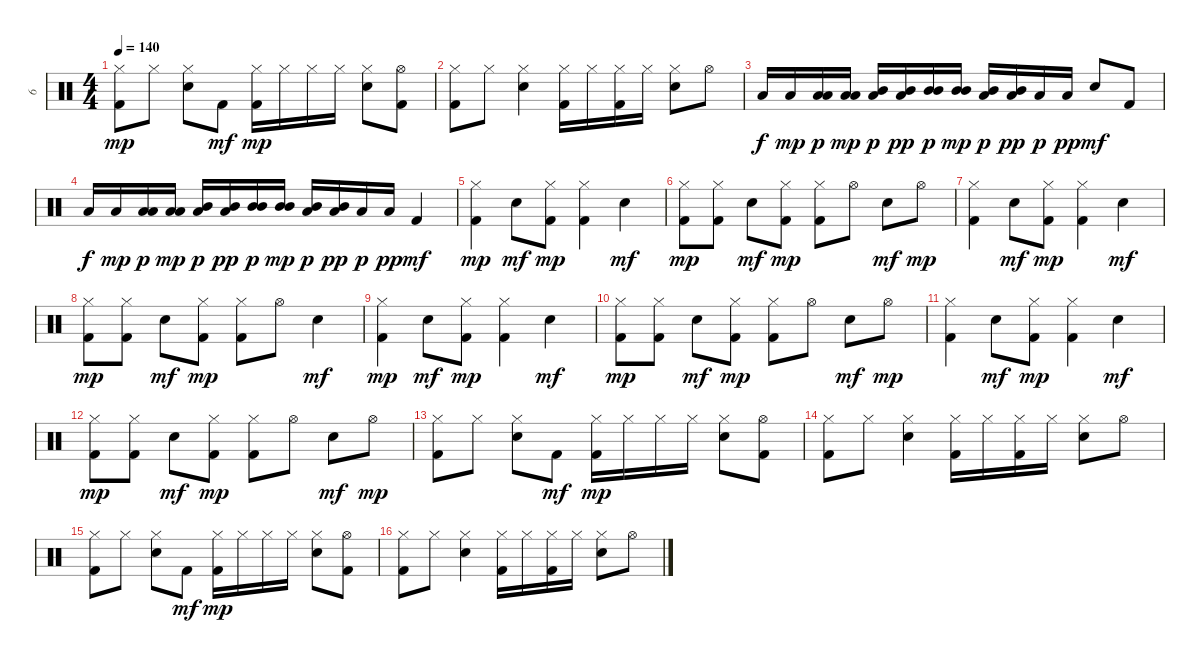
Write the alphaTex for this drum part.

\track ("6" "6") {instrument percussion}
\staff {score}
\articulation defaults
\ts (4 4)
\tempo 140
\clef neutral
\ks c
("Kick (hit) 2" "Hi-Hat (closed)").8{dy mp} "Hi-Hat (closed)".8 ("Electric Snare (hit)" "Hi-Hat (closed)").8 "Kick (hit) 2".8{dy mf} ("Kick (hit) 2" "Hi-Hat (closed)").16{dy mp} "Hi-Hat (closed)".16 "Hi-Hat (closed)".16 "Hi-Hat (closed)".16 ("Electric Snare (hit)" "Hi-Hat (closed)").8 ("Kick (hit) 2" "Hi-Hat (open)").8 |
("Kick (hit) 2" "Hi-Hat (closed)").8 "Hi-Hat (closed)".8 ("Electric Snare (hit)" "Hi-Hat (closed)").4 ("Kick (hit) 2" "Hi-Hat (closed)").16 "Hi-Hat (closed)".16 ("Kick (hit) 2" "Hi-Hat (closed)").16 "Hi-Hat (closed)".16 ("Electric Snare (hit)" "Hi-Hat (closed)").8 "Hi-Hat (open)".8 |
"Low Tom (hit)".16{dy f} "Low Tom (hit)".16{dy mp} ("Low Tom (hit)" "Low Tom (hit)").16{dy p} ("Low Tom (hit)" "Low Tom (hit)").16{dy mp} ("Mid Tom (hit)" "Low Tom (hit)").16{dy p} ("Mid Tom (hit)" "Low Tom (hit)").16{dy pp} ("Mid Tom (hit)" "Mid Tom (hit)").16{dy p} ("Mid Tom (hit)" "Mid Tom (hit)").16{dy mp} ("Low Tom (hit)" "Mid Tom (hit)").16{dy p} ("Low Tom (hit)" "Mid Tom (hit)").16{dy pp} "Low Tom (hit)".16{dy p} "Low Tom (hit)".16{dy pp} "Electric Snare (hit)".8{dy mf} "Kick (hit) 2".8 |
"Low Tom (hit)".16{dy f} "Low Tom (hit)".16{dy mp} ("Low Tom (hit)" "Low Tom (hit)").16{dy p} ("Low Tom (hit)" "Low Tom (hit)").16{dy mp} ("Mid Tom (hit)" "Low Tom (hit)").16{dy p} ("Mid Tom (hit)" "Low Tom (hit)").16{dy pp} ("Mid Tom (hit)" "Mid Tom (hit)").16{dy p} ("Mid Tom (hit)" "Mid Tom (hit)").16{dy mp} ("Low Tom (hit)" "Mid Tom (hit)").16{dy p} ("Low Tom (hit)" "Mid Tom (hit)").16{dy pp} "Low Tom (hit)".16{dy p} "Low Tom (hit)".16{dy pp} "Kick (hit) 2".4{dy mf} |
("Kick (hit) 2" "Hi-Hat (closed)").4{dy mp} "Electric Snare (hit)".8{dy mf} ("Kick (hit) 2" "Hi-Hat (closed)").8{dy mp} ("Kick (hit) 2" "Hi-Hat (closed)").4 "Electric Snare (hit)".4{dy mf} |
("Kick (hit) 2" "Hi-Hat (closed)").8{dy mp} ("Kick (hit) 2" "Hi-Hat (closed)").8 "Electric Snare (hit)".8{dy mf} ("Kick (hit) 2" "Hi-Hat (closed)").8{dy mp} ("Kick (hit) 2" "Hi-Hat (closed)").8 "Hi-Hat (open)".8 "Electric Snare (hit)".8{dy mf} "Hi-Hat (open)".8{dy mp} |
("Kick (hit) 2" "Hi-Hat (closed)").4 "Electric Snare (hit)".8{dy mf} ("Kick (hit) 2" "Hi-Hat (closed)").8{dy mp} ("Kick (hit) 2" "Hi-Hat (closed)").4 "Electric Snare (hit)".4{dy mf} |
("Kick (hit) 2" "Hi-Hat (closed)").8{dy mp} ("Kick (hit) 2" "Hi-Hat (closed)").8 "Electric Snare (hit)".8{dy mf} ("Kick (hit) 2" "Hi-Hat (closed)").8{dy mp} ("Kick (hit) 2" "Hi-Hat (closed)").8 "Hi-Hat (open)".8 "Electric Snare (hit)".4{dy mf} |
("Kick (hit) 2" "Hi-Hat (closed)").4{dy mp} "Electric Snare (hit)".8{dy mf} ("Kick (hit) 2" "Hi-Hat (closed)").8{dy mp} ("Kick (hit) 2" "Hi-Hat (closed)").4 "Electric Snare (hit)".4{dy mf} |
("Kick (hit) 2" "Hi-Hat (closed)").8{dy mp} ("Kick (hit) 2" "Hi-Hat (closed)").8 "Electric Snare (hit)".8{dy mf} ("Kick (hit) 2" "Hi-Hat (closed)").8{dy mp} ("Kick (hit) 2" "Hi-Hat (closed)").8 "Hi-Hat (open)".8 "Electric Snare (hit)".8{dy mf} "Hi-Hat (open)".8{dy mp} |
("Kick (hit) 2" "Hi-Hat (closed)").4 "Electric Snare (hit)".8{dy mf} ("Kick (hit) 2" "Hi-Hat (closed)").8{dy mp} ("Kick (hit) 2" "Hi-Hat (closed)").4 "Electric Snare (hit)".4{dy mf} |
("Kick (hit) 2" "Hi-Hat (closed)").8{dy mp} ("Kick (hit) 2" "Hi-Hat (closed)").8 "Electric Snare (hit)".8{dy mf} ("Kick (hit) 2" "Hi-Hat (closed)").8{dy mp} ("Kick (hit) 2" "Hi-Hat (closed)").8 "Hi-Hat (open)".8 "Electric Snare (hit)".8{dy mf} "Hi-Hat (open)".8{dy mp} |
("Kick (hit) 2" "Hi-Hat (closed)").8 "Hi-Hat (closed)".8 ("Electric Snare (hit)" "Hi-Hat (closed)").8 "Kick (hit) 2".8{dy mf} ("Kick (hit) 2" "Hi-Hat (closed)").16{dy mp} "Hi-Hat (closed)".16 "Hi-Hat (closed)".16 "Hi-Hat (closed)".16 ("Electric Snare (hit)" "Hi-Hat (closed)").8 ("Kick (hit) 2" "Hi-Hat (open)").8 |
("Kick (hit) 2" "Hi-Hat (closed)").8 "Hi-Hat (closed)".8 ("Electric Snare (hit)" "Hi-Hat (closed)").4 ("Kick (hit) 2" "Hi-Hat (closed)").16 "Hi-Hat (closed)".16 ("Kick (hit) 2" "Hi-Hat (closed)").16 "Hi-Hat (closed)".16 ("Electric Snare (hit)" "Hi-Hat (closed)").8 "Hi-Hat (open)".8 |
("Kick (hit) 2" "Hi-Hat (closed)").8 "Hi-Hat (closed)".8 ("Electric Snare (hit)" "Hi-Hat (closed)").8 "Kick (hit) 2".8{dy mf} ("Kick (hit) 2" "Hi-Hat (closed)").16{dy mp} "Hi-Hat (closed)".16 "Hi-Hat (closed)".16 "Hi-Hat (closed)".16 ("Electric Snare (hit)" "Hi-Hat (closed)").8 ("Kick (hit) 2" "Hi-Hat (open)").8 |
("Kick (hit) 2" "Hi-Hat (closed)").8 "Hi-Hat (closed)".8 ("Electric Snare (hit)" "Hi-Hat (closed)").4 ("Kick (hit) 2" "Hi-Hat (closed)").16 "Hi-Hat (closed)".16 ("Kick (hit) 2" "Hi-Hat (closed)").16 "Hi-Hat (closed)".16 ("Electric Snare (hit)" "Hi-Hat (closed)").8 "Hi-Hat (open)".8
